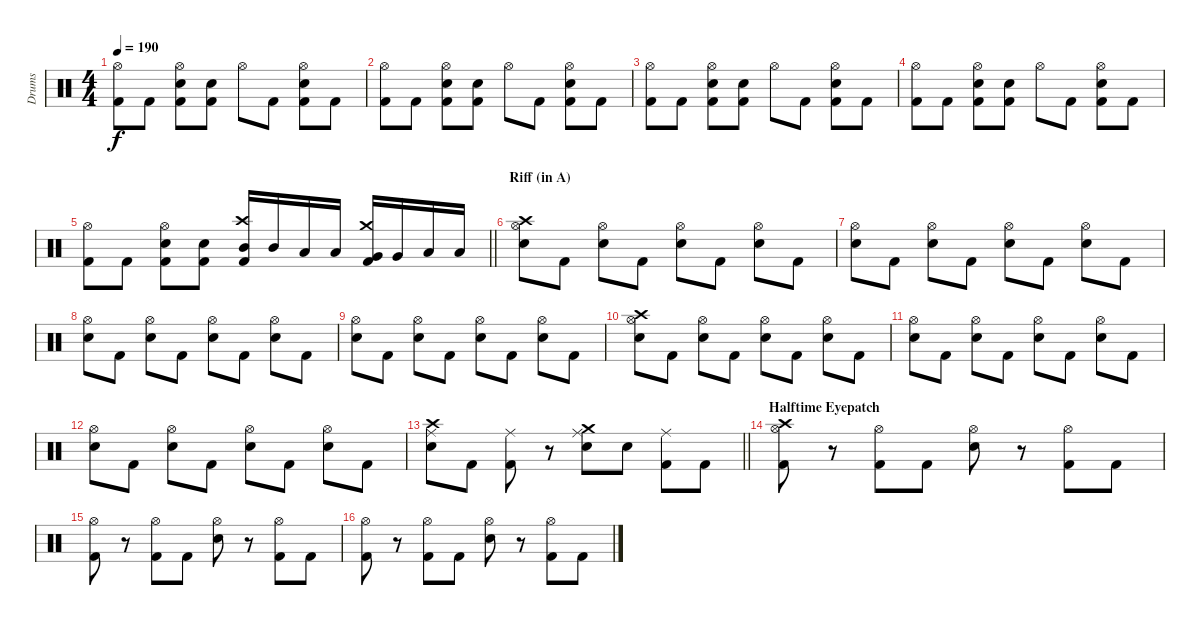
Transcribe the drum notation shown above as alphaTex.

\track ("Drums" "Drums") {instrument percussion}
\staff {score}
\articulation defaults
\ts (4 4)
\tempo 190
\clef neutral
\ks c
("Hi-Hat (open)" "Kick (hit) 2").8{dy f} "Kick (hit) 2".8 ("Hi-Hat (open)" "Snare (hit) 2" "Kick (hit) 2").8 ("Snare (hit) 2" "Kick (hit) 2").8 "Hi-Hat (open)".8 "Kick (hit) 2".8 ("Hi-Hat (open)" "Snare (hit) 2" "Kick (hit) 2").8 "Kick (hit) 2".8 |
("Hi-Hat (open)" "Kick (hit) 2").8 "Kick (hit) 2".8 ("Hi-Hat (open)" "Snare (hit) 2" "Kick (hit) 2").8 ("Snare (hit) 2" "Kick (hit) 2").8 "Hi-Hat (open)".8 "Kick (hit) 2".8 ("Hi-Hat (open)" "Snare (hit) 2" "Kick (hit) 2").8 "Kick (hit) 2".8 |
("Hi-Hat (open)" "Kick (hit) 2").8 "Kick (hit) 2".8 ("Hi-Hat (open)" "Snare (hit) 2" "Kick (hit) 2").8 ("Snare (hit) 2" "Kick (hit) 2").8 "Hi-Hat (open)".8 "Kick (hit) 2".8 ("Hi-Hat (open)" "Snare (hit) 2" "Kick (hit) 2").8 "Kick (hit) 2".8 |
("Hi-Hat (open)" "Kick (hit) 2").8 "Kick (hit) 2".8 ("Hi-Hat (open)" "Snare (hit) 2" "Kick (hit) 2").8 ("Snare (hit) 2" "Kick (hit) 2").8 "Hi-Hat (open)".8 "Kick (hit) 2".8 ("Hi-Hat (open)" "Snare (hit) 2" "Kick (hit) 2").8 "Kick (hit) 2".8 |
\barLineRight lightlight
("Hi-Hat (open)" "Kick (hit) 2").8 "Kick (hit) 2".8 ("Hi-Hat (open)" "Snare (hit) 2" "Kick (hit) 2").8 ("Snare (hit) 2" "Kick (hit) 2").8 ("Crash high (hit)" "Mid Tom (hit)" "Kick (hit) 2").16 "Mid Tom (hit)".16 "Low Tom (hit)".16 "Low Tom (hit)".16 ("Crash medium (hit)" "Very Low Tom (hit)" "Kick (hit) 2").16 "Very Low Tom (hit)".16 "Low Floor Tom (hit)".16 "Low Floor Tom (hit)".16 |
\section ("" "Riff (in A)")
("Crash high (hit)" "Hi-Hat (open)" "Snare (hit) 2").8 "Kick (hit) 2".8 ("Hi-Hat (open)" "Snare (hit) 2").8 "Kick (hit) 2".8 ("Hi-Hat (open)" "Snare (hit) 2").8 "Kick (hit) 2".8 ("Hi-Hat (open)" "Snare (hit) 2").8 "Kick (hit) 2".8 |
("Hi-Hat (open)" "Snare (hit) 2").8 "Kick (hit) 2".8 ("Hi-Hat (open)" "Snare (hit) 2").8 "Kick (hit) 2".8 ("Hi-Hat (open)" "Snare (hit) 2").8 "Kick (hit) 2".8 ("Hi-Hat (open)" "Snare (hit) 2").8 "Kick (hit) 2".8 |
("Hi-Hat (open)" "Snare (hit) 2").8 "Kick (hit) 2".8 ("Hi-Hat (open)" "Snare (hit) 2").8 "Kick (hit) 2".8 ("Hi-Hat (open)" "Snare (hit) 2").8 "Kick (hit) 2".8 ("Hi-Hat (open)" "Snare (hit) 2").8 "Kick (hit) 2".8 |
("Hi-Hat (open)" "Snare (hit) 2").8 "Kick (hit) 2".8 ("Hi-Hat (open)" "Snare (hit) 2").8 "Kick (hit) 2".8 ("Hi-Hat (open)" "Snare (hit) 2").8 "Kick (hit) 2".8 ("Hi-Hat (open)" "Snare (hit) 2").8 "Kick (hit) 2".8 |
("Crash high (hit)" "Hi-Hat (open)" "Snare (hit) 2").8 "Kick (hit) 2".8 ("Hi-Hat (open)" "Snare (hit) 2").8 "Kick (hit) 2".8 ("Hi-Hat (open)" "Snare (hit) 2").8 "Kick (hit) 2".8 ("Hi-Hat (open)" "Snare (hit) 2").8 "Kick (hit) 2".8 |
("Hi-Hat (open)" "Snare (hit) 2").8 "Kick (hit) 2".8 ("Hi-Hat (open)" "Snare (hit) 2").8 "Kick (hit) 2".8 ("Hi-Hat (open)" "Snare (hit) 2").8 "Kick (hit) 2".8 ("Hi-Hat (open)" "Snare (hit) 2").8 "Kick (hit) 2".8 |
("Hi-Hat (open)" "Snare (hit) 2").8 "Kick (hit) 2".8 ("Hi-Hat (open)" "Snare (hit) 2").8 "Kick (hit) 2".8 ("Hi-Hat (open)" "Snare (hit) 2").8 "Kick (hit) 2".8 ("Hi-Hat (open)" "Snare (hit) 2").8 "Kick (hit) 2".8 |
\barLineRight lightlight
("Crash high (hit)" "Ride (middle)" "Snare (hit) 2").8 "Kick (hit) 2".8 ("Ride (middle)" "Kick (hit) 2").8 r.8 ("Crash medium (hit)" "Ride (middle)" "Snare (hit) 2").8 "Snare (hit) 2".8 ("Ride (middle)" "Kick (hit) 2").8 "Kick (hit) 2".8 |
\section ("" "Halftime Eyepatch")
("Crash high (hit)" "Hi-Hat (open)" "Kick (hit) 2").8 r.8 ("Hi-Hat (open)" "Kick (hit) 2").8 "Kick (hit) 2".8 ("Hi-Hat (open)" "Snare (hit) 2").8 r.8 ("Hi-Hat (open)" "Kick (hit) 2").8 "Kick (hit) 2".8 |
("Hi-Hat (open)" "Kick (hit) 2").8 r.8 ("Hi-Hat (open)" "Kick (hit) 2").8 "Kick (hit) 2".8 ("Hi-Hat (open)" "Snare (hit) 2").8 r.8 ("Hi-Hat (open)" "Kick (hit) 2").8 "Kick (hit) 2".8 |
("Hi-Hat (open)" "Kick (hit) 2").8 r.8 ("Hi-Hat (open)" "Kick (hit) 2").8 "Kick (hit) 2".8 ("Hi-Hat (open)" "Snare (hit) 2").8 r.8 ("Hi-Hat (open)" "Kick (hit) 2").8 "Kick (hit) 2".8
